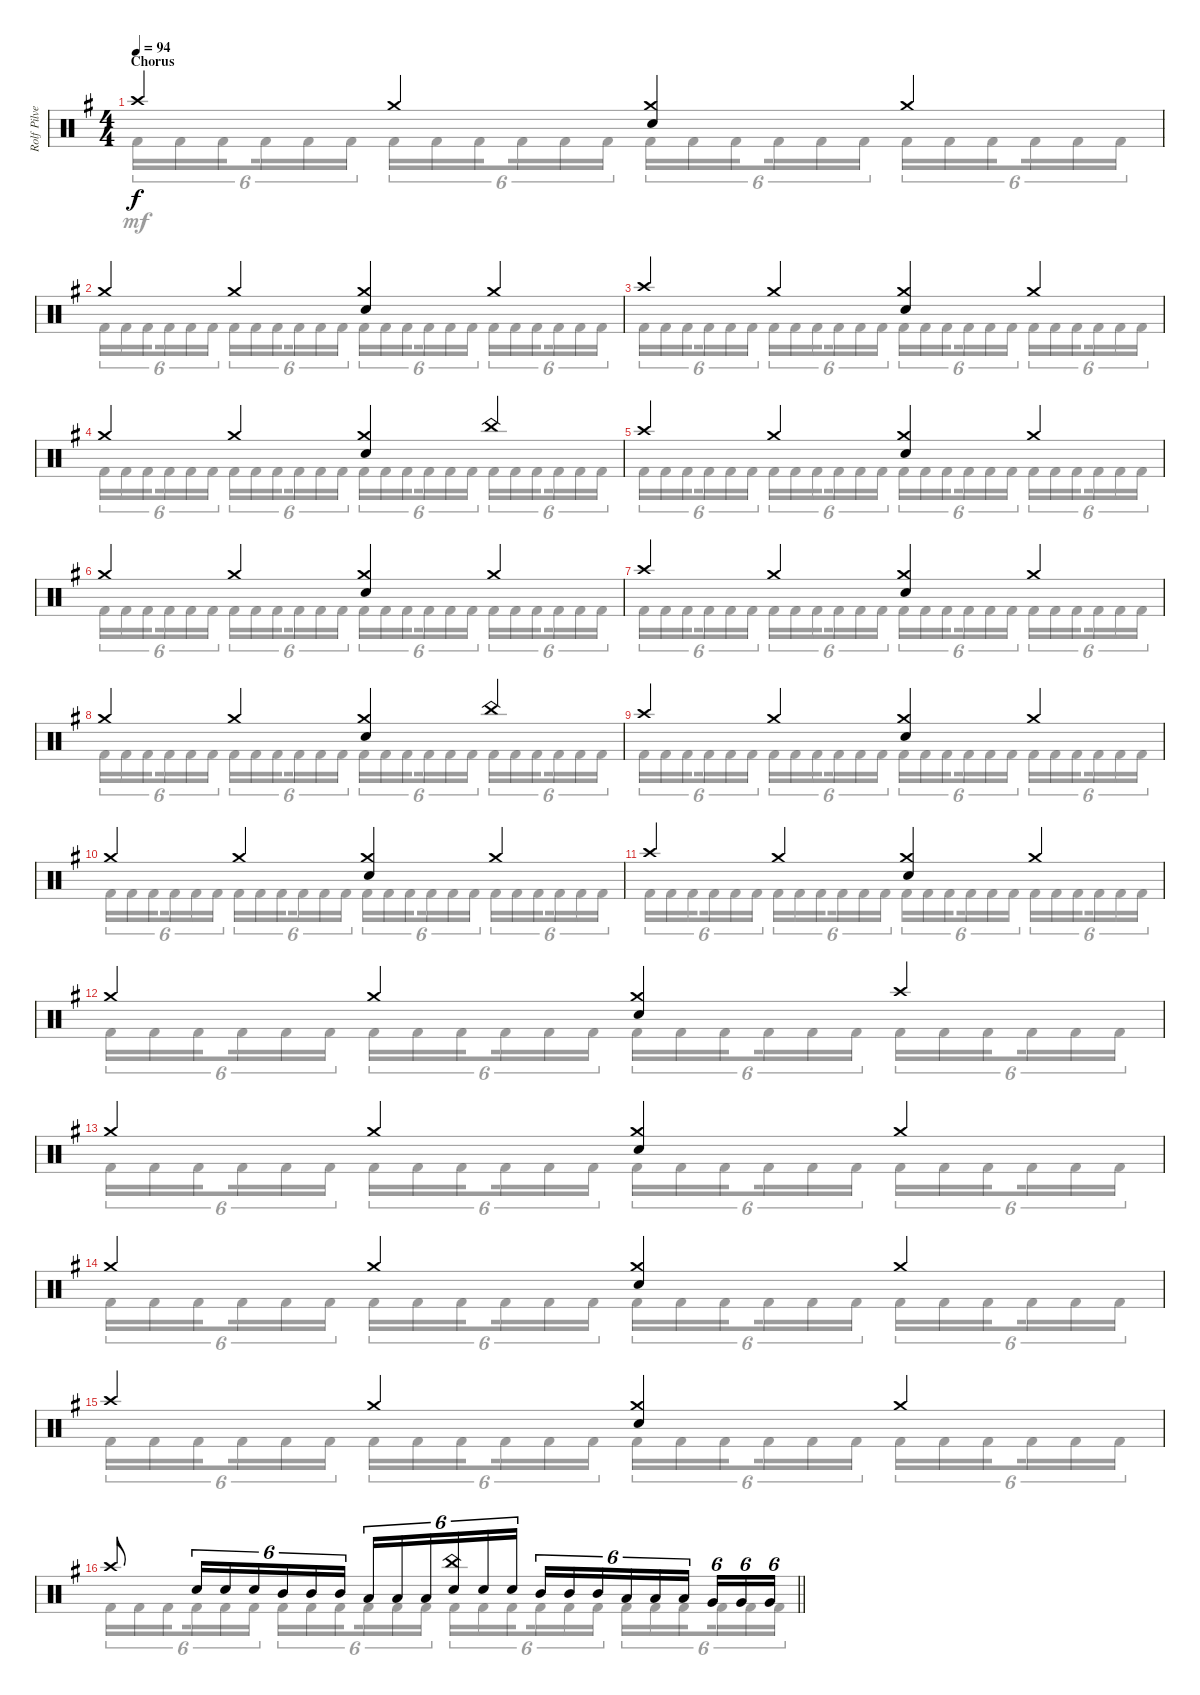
\track ("Rolf Pilve - drums" "Rolf Pilve") {instrument percussion}
\staff {score}
\articulation defaults
\voice
\ts (4 4)
\section ("" "Chorus")
\tempo 94
\clef neutral
\ks eminor "Crash high (hit)".4{dy f} "Crash medium (hit)".4
("Crash medium (hit)" "Snare (hit) 2").4 "Crash medium (hit)".4 |
"Crash medium (hit)".4 "Crash medium (hit)".4 ("Crash medium (hit)" "Snare (hit) 2").4 "Crash medium (hit)".4 |
"Crash high (hit)".4 "Crash medium (hit)".4 ("Crash medium (hit)" "Snare (hit) 2").4 "Crash medium (hit)".4 |
"Crash medium (hit)".4 "Crash medium (hit)".4 ("Crash medium (hit)" "Snare (hit) 2").4 "China (hit)".4 |
"Crash high (hit)".4 "Crash medium (hit)".4 ("Crash medium (hit)" "Snare (hit) 2").4 "Crash medium (hit)".4 |
"Crash medium (hit)".4 "Crash medium (hit)".4 ("Crash medium (hit)" "Snare (hit) 2").4 "Crash medium (hit)".4 |
"Crash high (hit)".4 "Crash medium (hit)".4 ("Crash medium (hit)" "Snare (hit) 2").4 "Crash medium (hit)".4 |
"Crash medium (hit)".4 "Crash medium (hit)".4 ("Crash medium (hit)" "Snare (hit) 2").4 "China (hit)".4 |
"Crash high (hit)".4 "Crash medium (hit)".4 ("Crash medium (hit)" "Snare (hit) 2").4 "Crash medium (hit)".4 |
"Crash medium (hit)".4 "Crash medium (hit)".4 ("Crash medium (hit)" "Snare (hit) 2").4 "Crash medium (hit)".4 |
"Crash high (hit)".4 "Crash medium (hit)".4 ("Crash medium (hit)" "Snare (hit) 2").4 "Crash medium (hit)".4 |
"Crash medium (hit)".4 "Crash medium (hit)".4 ("Crash medium (hit)" "Snare (hit) 2").4 "Crash high (hit)".4 |
"Crash medium (hit)".4 "Crash medium (hit)".4 ("Crash medium (hit)" "Snare (hit) 2").4 "Crash medium (hit)".4 |
"Crash medium (hit)".4 "Crash medium (hit)".4 ("Crash medium (hit)" "Snare (hit) 2").4 "Crash medium (hit)".4 |
"Crash high (hit)".4 "Crash medium (hit)".4 ("Crash medium (hit)" "Snare (hit) 2").4 "Crash medium (hit)".4 |
\barLineRight lightlight "Crash high (hit)".8 "Snare (hit) 2".16{tu (6 4)} "Snare (hit) 2".16{tu (6 4)} "Snare (hit) 2".16{tu (6 4)} "Mid Tom (hit)".16{tu (6 4)} "Mid Tom (hit)".16{tu (6 4)} "Mid Tom (hit)".16{tu (6 4) beam splitsecondary} "Low Tom (hit)".16{tu (6 4)} "Low Tom (hit)".16{tu (6 4)} "Low Tom (hit)".16{tu (6 4)}
("China (hit)" "Snare (hit) 2").16{tu (6 4)} "Snare (hit) 2".16{tu (6 4)} "Snare (hit) 2".16{tu (6 4) beam splitsecondary} "Mid Tom (hit)".16{tu (6 4)} "Mid Tom (hit)".16{tu (6 4)} "Mid Tom (hit)".16{tu (6 4)} "Low Tom (hit)".16{tu (6 4)} "Low Tom (hit)".16{tu (6 4)} "Low Tom (hit)".16{tu (6 4) beam splitsecondary} "Very Low Tom (hit)".16{tu (6 4)} "Very Low Tom (hit)".16{tu (6 4)} "Very Low Tom (hit)".16{tu (6 4)}
\voice
\clef neutral
\ottava regular
\simile none
\ks eminor "Kick (hit) 2".16{tu (6 4) dy mf} "Kick (hit) 2".16{tu (6 4)} "Kick (hit) 2".16{tu (6 4) beam splitsecondary} "Kick (hit) 2".16{tu (6 4)} "Kick (hit) 2".16{tu (6 4)} "Kick (hit) 2".16{tu (6 4)} "Kick (hit) 2".16{tu (6 4)} "Kick (hit) 2".16{tu (6 4)} "Kick (hit) 2".16{tu (6 4) beam splitsecondary} "Kick (hit) 2".16{tu (6 4)} "Kick (hit) 2".16{tu (6 4)} "Kick (hit) 2".16{tu (6 4)} "Kick (hit) 2".16{tu (6 4)} "Kick (hit) 2".16{tu (6 4)} "Kick (hit) 2".16{tu (6 4) beam splitsecondary} "Kick (hit) 2".16{tu (6 4)} "Kick (hit) 2".16{tu (6 4)} "Kick (hit) 2".16{tu (6 4)} "Kick (hit) 2".16{tu (6 4)} "Kick (hit) 2".16{tu (6 4)} "Kick (hit) 2".16{tu (6 4) beam splitsecondary} "Kick (hit) 2".16{tu (6 4)} "Kick (hit) 2".16{tu (6 4)} "Kick (hit) 2".16{tu (6 4)}
|
"Kick (hit) 2".16{tu (6 4)} "Kick (hit) 2".16{tu (6 4)} "Kick (hit) 2".16{tu (6 4) beam splitsecondary} "Kick (hit) 2".16{tu (6 4)} "Kick (hit) 2".16{tu (6 4)} "Kick (hit) 2".16{tu (6 4)} "Kick (hit) 2".16{tu (6 4)} "Kick (hit) 2".16{tu (6 4)} "Kick (hit) 2".16{tu (6 4) beam splitsecondary} "Kick (hit) 2".16{tu (6 4)} "Kick (hit) 2".16{tu (6 4)} "Kick (hit) 2".16{tu (6 4)} "Kick (hit) 2".16{tu (6 4)} "Kick (hit) 2".16{tu (6 4)} "Kick (hit) 2".16{tu (6 4) beam splitsecondary} "Kick (hit) 2".16{tu (6 4)} "Kick (hit) 2".16{tu (6 4)} "Kick (hit) 2".16{tu (6 4)} "Kick (hit) 2".16{tu (6 4)} "Kick (hit) 2".16{tu (6 4)} "Kick (hit) 2".16{tu (6 4) beam splitsecondary} "Kick (hit) 2".16{tu (6 4)} "Kick (hit) 2".16{tu (6 4)} "Kick (hit) 2".16{tu (6 4)} |
"Kick (hit) 2".16{tu (6 4)} "Kick (hit) 2".16{tu (6 4)} "Kick (hit) 2".16{tu (6 4) beam splitsecondary} "Kick (hit) 2".16{tu (6 4)} "Kick (hit) 2".16{tu (6 4)} "Kick (hit) 2".16{tu (6 4)} "Kick (hit) 2".16{tu (6 4)} "Kick (hit) 2".16{tu (6 4)} "Kick (hit) 2".16{tu (6 4) beam splitsecondary} "Kick (hit) 2".16{tu (6 4)} "Kick (hit) 2".16{tu (6 4)} "Kick (hit) 2".16{tu (6 4)} "Kick (hit) 2".16{tu (6 4)} "Kick (hit) 2".16{tu (6 4)} "Kick (hit) 2".16{tu (6 4) beam splitsecondary} "Kick (hit) 2".16{tu (6 4)} "Kick (hit) 2".16{tu (6 4)} "Kick (hit) 2".16{tu (6 4)} "Kick (hit) 2".16{tu (6 4)} "Kick (hit) 2".16{tu (6 4)} "Kick (hit) 2".16{tu (6 4) beam splitsecondary} "Kick (hit) 2".16{tu (6 4)} "Kick (hit) 2".16{tu (6 4)} "Kick (hit) 2".16{tu (6 4)} |
"Kick (hit) 2".16{tu (6 4)} "Kick (hit) 2".16{tu (6 4)} "Kick (hit) 2".16{tu (6 4) beam splitsecondary} "Kick (hit) 2".16{tu (6 4)} "Kick (hit) 2".16{tu (6 4)} "Kick (hit) 2".16{tu (6 4)} "Kick (hit) 2".16{tu (6 4)} "Kick (hit) 2".16{tu (6 4)} "Kick (hit) 2".16{tu (6 4) beam splitsecondary} "Kick (hit) 2".16{tu (6 4)} "Kick (hit) 2".16{tu (6 4)} "Kick (hit) 2".16{tu (6 4)} "Kick (hit) 2".16{tu (6 4)} "Kick (hit) 2".16{tu (6 4)} "Kick (hit) 2".16{tu (6 4) beam splitsecondary} "Kick (hit) 2".16{tu (6 4)} "Kick (hit) 2".16{tu (6 4)} "Kick (hit) 2".16{tu (6 4)} "Kick (hit) 2".16{tu (6 4)} "Kick (hit) 2".16{tu (6 4)} "Kick (hit) 2".16{tu (6 4) beam splitsecondary} "Kick (hit) 2".16{tu (6 4)} "Kick (hit) 2".16{tu (6 4)} "Kick (hit) 2".16{tu (6 4)} |
"Kick (hit) 2".16{tu (6 4)} "Kick (hit) 2".16{tu (6 4)} "Kick (hit) 2".16{tu (6 4) beam splitsecondary} "Kick (hit) 2".16{tu (6 4)} "Kick (hit) 2".16{tu (6 4)} "Kick (hit) 2".16{tu (6 4)} "Kick (hit) 2".16{tu (6 4)} "Kick (hit) 2".16{tu (6 4)} "Kick (hit) 2".16{tu (6 4) beam splitsecondary} "Kick (hit) 2".16{tu (6 4)} "Kick (hit) 2".16{tu (6 4)} "Kick (hit) 2".16{tu (6 4)} "Kick (hit) 2".16{tu (6 4)} "Kick (hit) 2".16{tu (6 4)} "Kick (hit) 2".16{tu (6 4) beam splitsecondary} "Kick (hit) 2".16{tu (6 4)} "Kick (hit) 2".16{tu (6 4)} "Kick (hit) 2".16{tu (6 4)} "Kick (hit) 2".16{tu (6 4)} "Kick (hit) 2".16{tu (6 4)} "Kick (hit) 2".16{tu (6 4) beam splitsecondary} "Kick (hit) 2".16{tu (6 4)} "Kick (hit) 2".16{tu (6 4)} "Kick (hit) 2".16{tu (6 4)} |
"Kick (hit) 2".16{tu (6 4)} "Kick (hit) 2".16{tu (6 4)} "Kick (hit) 2".16{tu (6 4) beam splitsecondary} "Kick (hit) 2".16{tu (6 4)} "Kick (hit) 2".16{tu (6 4)} "Kick (hit) 2".16{tu (6 4)} "Kick (hit) 2".16{tu (6 4)} "Kick (hit) 2".16{tu (6 4)} "Kick (hit) 2".16{tu (6 4) beam splitsecondary} "Kick (hit) 2".16{tu (6 4)} "Kick (hit) 2".16{tu (6 4)} "Kick (hit) 2".16{tu (6 4)} "Kick (hit) 2".16{tu (6 4)} "Kick (hit) 2".16{tu (6 4)} "Kick (hit) 2".16{tu (6 4) beam splitsecondary} "Kick (hit) 2".16{tu (6 4)} "Kick (hit) 2".16{tu (6 4)} "Kick (hit) 2".16{tu (6 4)} "Kick (hit) 2".16{tu (6 4)} "Kick (hit) 2".16{tu (6 4)} "Kick (hit) 2".16{tu (6 4) beam splitsecondary} "Kick (hit) 2".16{tu (6 4)} "Kick (hit) 2".16{tu (6 4)} "Kick (hit) 2".16{tu (6 4)} |
"Kick (hit) 2".16{tu (6 4)} "Kick (hit) 2".16{tu (6 4)} "Kick (hit) 2".16{tu (6 4) beam splitsecondary} "Kick (hit) 2".16{tu (6 4)} "Kick (hit) 2".16{tu (6 4)} "Kick (hit) 2".16{tu (6 4)} "Kick (hit) 2".16{tu (6 4)} "Kick (hit) 2".16{tu (6 4)} "Kick (hit) 2".16{tu (6 4) beam splitsecondary} "Kick (hit) 2".16{tu (6 4)} "Kick (hit) 2".16{tu (6 4)} "Kick (hit) 2".16{tu (6 4)} "Kick (hit) 2".16{tu (6 4)} "Kick (hit) 2".16{tu (6 4)} "Kick (hit) 2".16{tu (6 4) beam splitsecondary} "Kick (hit) 2".16{tu (6 4)} "Kick (hit) 2".16{tu (6 4)} "Kick (hit) 2".16{tu (6 4)} "Kick (hit) 2".16{tu (6 4)} "Kick (hit) 2".16{tu (6 4)} "Kick (hit) 2".16{tu (6 4) beam splitsecondary} "Kick (hit) 2".16{tu (6 4)} "Kick (hit) 2".16{tu (6 4)} "Kick (hit) 2".16{tu (6 4)} |
"Kick (hit) 2".16{tu (6 4)} "Kick (hit) 2".16{tu (6 4)} "Kick (hit) 2".16{tu (6 4) beam splitsecondary} "Kick (hit) 2".16{tu (6 4)} "Kick (hit) 2".16{tu (6 4)} "Kick (hit) 2".16{tu (6 4)} "Kick (hit) 2".16{tu (6 4)} "Kick (hit) 2".16{tu (6 4)} "Kick (hit) 2".16{tu (6 4) beam splitsecondary} "Kick (hit) 2".16{tu (6 4)} "Kick (hit) 2".16{tu (6 4)} "Kick (hit) 2".16{tu (6 4)} "Kick (hit) 2".16{tu (6 4)} "Kick (hit) 2".16{tu (6 4)} "Kick (hit) 2".16{tu (6 4) beam splitsecondary} "Kick (hit) 2".16{tu (6 4)} "Kick (hit) 2".16{tu (6 4)} "Kick (hit) 2".16{tu (6 4)} "Kick (hit) 2".16{tu (6 4)} "Kick (hit) 2".16{tu (6 4)} "Kick (hit) 2".16{tu (6 4) beam splitsecondary} "Kick (hit) 2".16{tu (6 4)} "Kick (hit) 2".16{tu (6 4)} "Kick (hit) 2".16{tu (6 4)} |
"Kick (hit) 2".16{tu (6 4)} "Kick (hit) 2".16{tu (6 4)} "Kick (hit) 2".16{tu (6 4) beam splitsecondary} "Kick (hit) 2".16{tu (6 4)} "Kick (hit) 2".16{tu (6 4)} "Kick (hit) 2".16{tu (6 4)} "Kick (hit) 2".16{tu (6 4)} "Kick (hit) 2".16{tu (6 4)} "Kick (hit) 2".16{tu (6 4) beam splitsecondary} "Kick (hit) 2".16{tu (6 4)} "Kick (hit) 2".16{tu (6 4)} "Kick (hit) 2".16{tu (6 4)} "Kick (hit) 2".16{tu (6 4)} "Kick (hit) 2".16{tu (6 4)} "Kick (hit) 2".16{tu (6 4) beam splitsecondary} "Kick (hit) 2".16{tu (6 4)} "Kick (hit) 2".16{tu (6 4)} "Kick (hit) 2".16{tu (6 4)} "Kick (hit) 2".16{tu (6 4)} "Kick (hit) 2".16{tu (6 4)} "Kick (hit) 2".16{tu (6 4) beam splitsecondary} "Kick (hit) 2".16{tu (6 4)} "Kick (hit) 2".16{tu (6 4)} "Kick (hit) 2".16{tu (6 4)} |
"Kick (hit) 2".16{tu (6 4)} "Kick (hit) 2".16{tu (6 4)} "Kick (hit) 2".16{tu (6 4) beam splitsecondary} "Kick (hit) 2".16{tu (6 4)} "Kick (hit) 2".16{tu (6 4)} "Kick (hit) 2".16{tu (6 4)} "Kick (hit) 2".16{tu (6 4)} "Kick (hit) 2".16{tu (6 4)} "Kick (hit) 2".16{tu (6 4) beam splitsecondary} "Kick (hit) 2".16{tu (6 4)} "Kick (hit) 2".16{tu (6 4)} "Kick (hit) 2".16{tu (6 4)} "Kick (hit) 2".16{tu (6 4)} "Kick (hit) 2".16{tu (6 4)} "Kick (hit) 2".16{tu (6 4) beam splitsecondary} "Kick (hit) 2".16{tu (6 4)} "Kick (hit) 2".16{tu (6 4)} "Kick (hit) 2".16{tu (6 4)} "Kick (hit) 2".16{tu (6 4)} "Kick (hit) 2".16{tu (6 4)} "Kick (hit) 2".16{tu (6 4) beam splitsecondary} "Kick (hit) 2".16{tu (6 4)} "Kick (hit) 2".16{tu (6 4)} "Kick (hit) 2".16{tu (6 4)} |
"Kick (hit) 2".16{tu (6 4)} "Kick (hit) 2".16{tu (6 4)} "Kick (hit) 2".16{tu (6 4) beam splitsecondary} "Kick (hit) 2".16{tu (6 4)} "Kick (hit) 2".16{tu (6 4)} "Kick (hit) 2".16{tu (6 4)} "Kick (hit) 2".16{tu (6 4)} "Kick (hit) 2".16{tu (6 4)} "Kick (hit) 2".16{tu (6 4) beam splitsecondary} "Kick (hit) 2".16{tu (6 4)} "Kick (hit) 2".16{tu (6 4)} "Kick (hit) 2".16{tu (6 4)} "Kick (hit) 2".16{tu (6 4)} "Kick (hit) 2".16{tu (6 4)} "Kick (hit) 2".16{tu (6 4) beam splitsecondary} "Kick (hit) 2".16{tu (6 4)} "Kick (hit) 2".16{tu (6 4)} "Kick (hit) 2".16{tu (6 4)} "Kick (hit) 2".16{tu (6 4)} "Kick (hit) 2".16{tu (6 4)} "Kick (hit) 2".16{tu (6 4) beam splitsecondary} "Kick (hit) 2".16{tu (6 4)} "Kick (hit) 2".16{tu (6 4)} "Kick (hit) 2".16{tu (6 4)} |
"Kick (hit) 2".16{tu (6 4)} "Kick (hit) 2".16{tu (6 4)} "Kick (hit) 2".16{tu (6 4) beam splitsecondary} "Kick (hit) 2".16{tu (6 4)} "Kick (hit) 2".16{tu (6 4)} "Kick (hit) 2".16{tu (6 4)} "Kick (hit) 2".16{tu (6 4)} "Kick (hit) 2".16{tu (6 4)} "Kick (hit) 2".16{tu (6 4) beam splitsecondary} "Kick (hit) 2".16{tu (6 4)} "Kick (hit) 2".16{tu (6 4)} "Kick (hit) 2".16{tu (6 4)} "Kick (hit) 2".16{tu (6 4)} "Kick (hit) 2".16{tu (6 4)} "Kick (hit) 2".16{tu (6 4) beam splitsecondary} "Kick (hit) 2".16{tu (6 4)} "Kick (hit) 2".16{tu (6 4)} "Kick (hit) 2".16{tu (6 4)} "Kick (hit) 2".16{tu (6 4)} "Kick (hit) 2".16{tu (6 4)} "Kick (hit) 2".16{tu (6 4) beam splitsecondary} "Kick (hit) 2".16{tu (6 4)} "Kick (hit) 2".16{tu (6 4)} "Kick (hit) 2".16{tu (6 4)} |
"Kick (hit) 2".16{tu (6 4)} "Kick (hit) 2".16{tu (6 4)} "Kick (hit) 2".16{tu (6 4) beam splitsecondary} "Kick (hit) 2".16{tu (6 4)} "Kick (hit) 2".16{tu (6 4)} "Kick (hit) 2".16{tu (6 4)} "Kick (hit) 2".16{tu (6 4)} "Kick (hit) 2".16{tu (6 4)} "Kick (hit) 2".16{tu (6 4) beam splitsecondary} "Kick (hit) 2".16{tu (6 4)} "Kick (hit) 2".16{tu (6 4)} "Kick (hit) 2".16{tu (6 4)} "Kick (hit) 2".16{tu (6 4)} "Kick (hit) 2".16{tu (6 4)} "Kick (hit) 2".16{tu (6 4) beam splitsecondary} "Kick (hit) 2".16{tu (6 4)} "Kick (hit) 2".16{tu (6 4)} "Kick (hit) 2".16{tu (6 4)} "Kick (hit) 2".16{tu (6 4)} "Kick (hit) 2".16{tu (6 4)} "Kick (hit) 2".16{tu (6 4) beam splitsecondary} "Kick (hit) 2".16{tu (6 4)} "Kick (hit) 2".16{tu (6 4)} "Kick (hit) 2".16{tu (6 4)} |
"Kick (hit) 2".16{tu (6 4)} "Kick (hit) 2".16{tu (6 4)} "Kick (hit) 2".16{tu (6 4) beam splitsecondary} "Kick (hit) 2".16{tu (6 4)} "Kick (hit) 2".16{tu (6 4)} "Kick (hit) 2".16{tu (6 4)} "Kick (hit) 2".16{tu (6 4)} "Kick (hit) 2".16{tu (6 4)} "Kick (hit) 2".16{tu (6 4) beam splitsecondary} "Kick (hit) 2".16{tu (6 4)} "Kick (hit) 2".16{tu (6 4)} "Kick (hit) 2".16{tu (6 4)} "Kick (hit) 2".16{tu (6 4)} "Kick (hit) 2".16{tu (6 4)} "Kick (hit) 2".16{tu (6 4) beam splitsecondary} "Kick (hit) 2".16{tu (6 4)} "Kick (hit) 2".16{tu (6 4)} "Kick (hit) 2".16{tu (6 4)} "Kick (hit) 2".16{tu (6 4)} "Kick (hit) 2".16{tu (6 4)} "Kick (hit) 2".16{tu (6 4) beam splitsecondary} "Kick (hit) 2".16{tu (6 4)} "Kick (hit) 2".16{tu (6 4)} "Kick (hit) 2".16{tu (6 4)} |
"Kick (hit) 2".16{tu (6 4)} "Kick (hit) 2".16{tu (6 4)} "Kick (hit) 2".16{tu (6 4) beam splitsecondary} "Kick (hit) 2".16{tu (6 4)} "Kick (hit) 2".16{tu (6 4)} "Kick (hit) 2".16{tu (6 4)} "Kick (hit) 2".16{tu (6 4)} "Kick (hit) 2".16{tu (6 4)} "Kick (hit) 2".16{tu (6 4) beam splitsecondary} "Kick (hit) 2".16{tu (6 4)} "Kick (hit) 2".16{tu (6 4)} "Kick (hit) 2".16{tu (6 4)} "Kick (hit) 2".16{tu (6 4)} "Kick (hit) 2".16{tu (6 4)} "Kick (hit) 2".16{tu (6 4) beam splitsecondary} "Kick (hit) 2".16{tu (6 4)} "Kick (hit) 2".16{tu (6 4)} "Kick (hit) 2".16{tu (6 4)} "Kick (hit) 2".16{tu (6 4)} "Kick (hit) 2".16{tu (6 4)} "Kick (hit) 2".16{tu (6 4) beam splitsecondary} "Kick (hit) 2".16{tu (6 4)} "Kick (hit) 2".16{tu (6 4)} "Kick (hit) 2".16{tu (6 4)} |
\barLineRight lightlight "Kick (hit) 2".16{tu (6 4)} "Kick (hit) 2".16{tu (6 4)} "Kick (hit) 2".16{tu (6 4) beam splitsecondary} "Kick (hit) 2".16{tu (6 4)} "Kick (hit) 2".16{tu (6 4)} "Kick (hit) 2".16{tu (6 4)} "Kick (hit) 2".16{tu (6 4)} "Kick (hit) 2".16{tu (6 4)} "Kick (hit) 2".16{tu (6 4) beam splitsecondary} "Kick (hit) 2".16{tu (6 4)} "Kick (hit) 2".16{tu (6 4)} "Kick (hit) 2".16{tu (6 4)} "Kick (hit) 2".16{tu (6 4)} "Kick (hit) 2".16{tu (6 4)} "Kick (hit) 2".16{tu (6 4) beam splitsecondary} "Kick (hit) 2".16{tu (6 4)} "Kick (hit) 2".16{tu (6 4)} "Kick (hit) 2".16{tu (6 4)} "Kick (hit) 2".16{tu (6 4)} "Kick (hit) 2".16{tu (6 4)} "Kick (hit) 2".16{tu (6 4) beam splitsecondary} "Kick (hit) 2".16{tu (6 4)} "Kick (hit) 2".16{tu (6 4)} "Kick (hit) 2".16{tu (6 4)}
